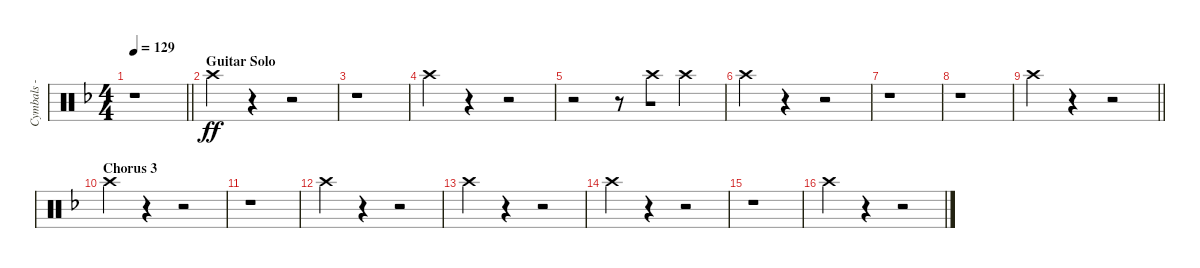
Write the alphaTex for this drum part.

\track ("Cymbals - crash" "Cymbals - ") {instrument percussion}
\staff {score}
\articulation defaults
\ts (4 4)
\tempo 129
\clef neutral
\barLineRight lightlight
\ks dminor
r.1{dy ff} |
\section ("" "Guitar Solo")
"Crash high (hit)".4 r.4 r.2 |
r.1 |
"Crash high (hit)".4 r.4 r.2 |
r.2 r.8 "Crash high (hit)".8{beam merge} "Crash high (hit)".4 |
"Crash high (hit)".4 r.4 r.2 |
r.1 |
r.1 |
\barLineRight lightlight "Crash high (hit)".4
r.4 r.2 |
\section ("" "Chorus 3")
"Crash high (hit)".4 r.4 r.2 |
r.1 |
"Crash high (hit)".4 r.4 r.2 |
"Crash high (hit)".4 r.4 r.2 |
"Crash high (hit)".4 r.4 r.2 |
r.1 |
"Crash high (hit)".4 r.4 r.2
